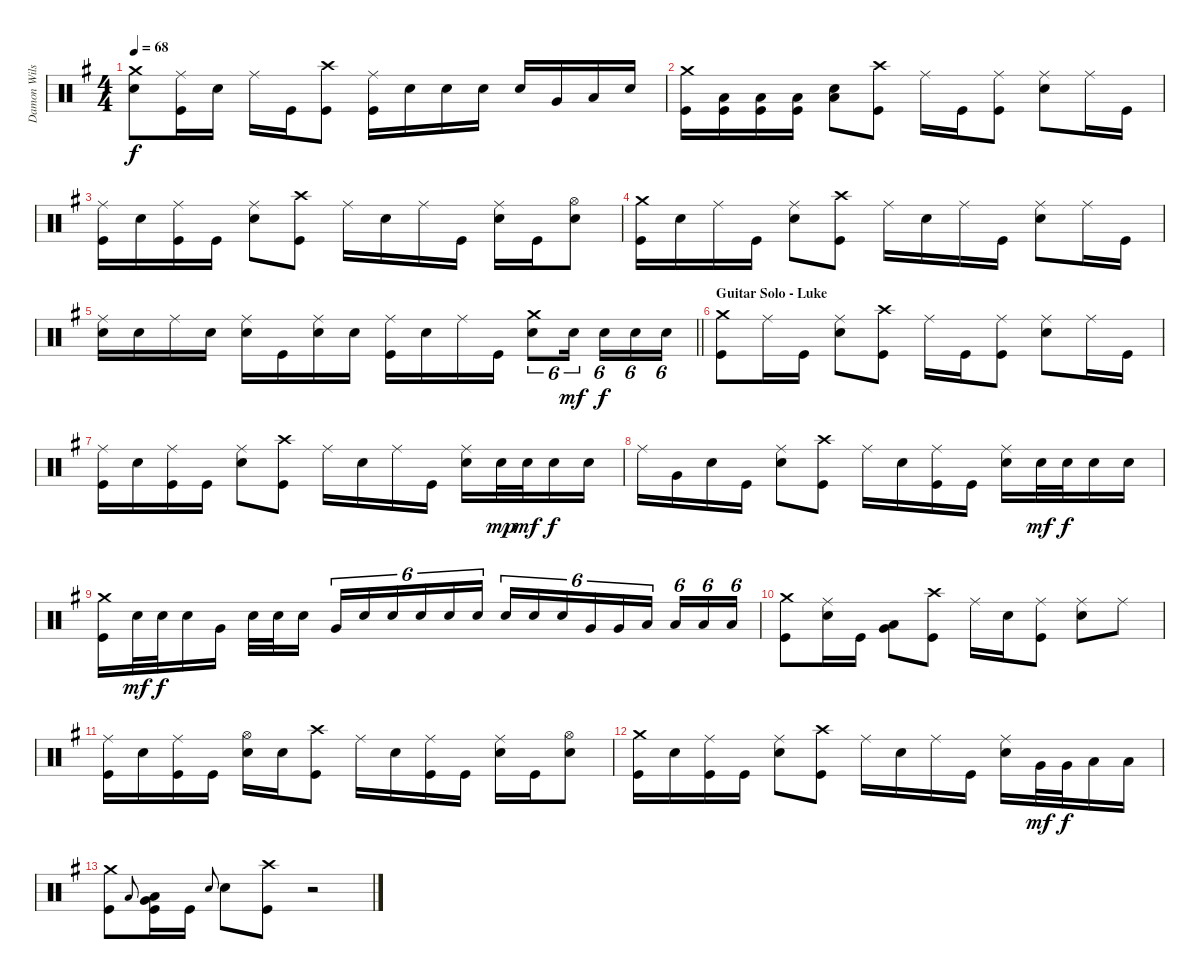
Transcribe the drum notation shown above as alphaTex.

\track ("Damon Wilson" "Damon Wils") {instrument percussion}
\staff {score}
\articulation defaults
\ts (4 4)
\tempo 68
\clef neutral
\ks g
("Crash medium (hit)" "Electric Snare (hit)").8{dy f} ("Ride (middle)" "Kick (hit)").16 "Electric Snare (hit)".16 "Ride (middle)".16 "Kick (hit)".16 ("Crash high (hit)" "Kick (hit)").8 ("Ride (middle)" "Kick (hit)").16 "Electric Snare (hit)".16 "Electric Snare (hit)".16 "Electric Snare (hit)".16 "Electric Snare (hit)".16 "Very Low Tom (hit)".16 "Low Floor Tom (hit)".16 "Electric Snare (hit)".16 |
("Crash medium (hit)" "Kick (hit)").16 ("Low Floor Tom (hit)" "Kick (hit)").16 ("Low Floor Tom (hit)" "Kick (hit)").16 ("Low Floor Tom (hit)" "Kick (hit)").16 ("Low Floor Tom (hit)" "Electric Snare (hit)").8 ("Crash high (hit)" "Kick (hit)").8 "Ride (middle)".16 "Kick (hit)".16 ("Ride (middle)" "Kick (hit)").8 ("Ride (middle)" "Electric Snare (hit)").8 "Ride (middle)".16 "Kick (hit)".16 |
("Ride (middle)" "Kick (hit)").16 "Electric Snare (hit)".16 ("Ride (middle)" "Kick (hit)").16 "Kick (hit)".16 ("Ride (middle)" "Electric Snare (hit)").8 ("Crash high (hit)" "Kick (hit)").8 "Ride (middle)".16 "Electric Snare (hit)".16 "Ride (middle)".16 "Kick (hit)".16 ("Ride (middle)" "Electric Snare (hit)").16 "Kick (hit)".16 ("Hi-Hat (open)" "Electric Snare (hit)").8 |
("Crash medium (hit)" "Kick (hit)").16 "Electric Snare (hit)".16 "Ride (middle)".16 "Kick (hit)".16 ("Ride (middle)" "Electric Snare (hit)").8 ("Crash high (hit)" "Kick (hit)").8 "Ride (middle)".16 "Electric Snare (hit)".16 "Ride (middle)".16 "Kick (hit)".16 ("Ride (middle)" "Electric Snare (hit)").8 "Ride (middle)".16 "Kick (hit)".16 |
\barLineRight lightlight
("Ride (middle)" "Electric Snare (hit)").16 "Electric Snare (hit)".16 "Ride (middle)".16 "Electric Snare (hit)".16 ("Ride (middle)" "Electric Snare (hit)").16 "Kick (hit)".16 ("Ride (middle)" "Electric Snare (hit)").16 "Electric Snare (hit)".16 ("Ride (middle)" "Kick (hit)").16 "Electric Snare (hit)".16 "Ride (middle)".16 "Kick (hit)".16 ("Crash medium (hit)" "Electric Snare (hit)").8{tu (6 4)} "Electric Snare (hit)".16{tu (6 4) dy mf beam splitsecondary} "Electric Snare (hit)".16{tu (6 4) dy f} "Electric Snare (hit)".16{tu (6 4)} "Electric Snare (hit)".16{tu (6 4)} |
\section ("" "Guitar Solo - Luke")
("Crash medium (hit)" "Kick (hit)").8 "Ride (middle)".16 "Kick (hit)".16 ("Ride (middle)" "Electric Snare (hit)").8 ("Crash high (hit)" "Kick (hit)").8 "Ride (middle)".16 "Kick (hit)".16 ("Ride (middle)" "Kick (hit)").8 ("Ride (middle)" "Electric Snare (hit)").8 "Ride (middle)".16 "Kick (hit)".16 |
("Ride (middle)" "Kick (hit)").16 "Electric Snare (hit)".16 ("Ride (middle)" "Kick (hit)").16 "Kick (hit)".16 ("Ride (middle)" "Electric Snare (hit)").8 ("Crash high (hit)" "Kick (hit)").8 "Ride (middle)".16 "Electric Snare (hit)".16 "Ride (middle)".16 "Kick (hit)".16 ("Ride (middle)" "Electric Snare (hit)").16 "Electric Snare (hit)".32{dy mp} "Electric Snare (hit)".32{dy mf} "Electric Snare (hit)".16{dy f} "Electric Snare (hit)".16 |
"Ride (middle)".16 "Very Low Tom (hit)".16 "Electric Snare (hit)".16 "Kick (hit)".16 ("Ride (middle)" "Electric Snare (hit)").8 ("Crash high (hit)" "Kick (hit)").8 "Ride (middle)".16 "Electric Snare (hit)".16 ("Ride (middle)" "Kick (hit)").16 "Kick (hit)".16 ("Ride (middle)" "Electric Snare (hit)").16 "Electric Snare (hit)".32{dy mf} "Electric Snare (hit)".32{dy f} "Electric Snare (hit)".16 "Electric Snare (hit)".16 |
("Crash medium (hit)" "Kick (hit)").16 "Electric Snare (hit)".32{dy mf} "Electric Snare (hit)".32{dy f} "Electric Snare (hit)".16 "Very Low Tom (hit)".16 "Electric Snare (hit)".32 "Electric Snare (hit)".32 "Electric Snare (hit)".16{beam splitsecondary} "Very Low Tom (hit)".16{tu (6 4)} "Electric Snare (hit)".16{tu (6 4)} "Electric Snare (hit)".16{tu (6 4)} "Electric Snare (hit)".16{tu (6 4)} "Electric Snare (hit)".16{tu (6 4)} "Electric Snare (hit)".16{tu (6 4) beam splitsecondary} "Electric Snare (hit)".16{tu (6 4)} "Electric Snare (hit)".16{tu (6 4)} "Electric Snare (hit)".16{tu (6 4)} "Very Low Tom (hit)".16{tu (6 4)} "Very Low Tom (hit)".16{tu (6 4)} "Low Floor Tom (hit)".16{tu (6 4) beam splitsecondary} "Low Floor Tom (hit)".16{tu (6 4)} "Low Floor Tom (hit)".16{tu (6 4)} "Low Floor Tom (hit)".16{tu (6 4)} |
("Crash medium (hit)" "Kick (hit)").8 ("Ride (middle)" "Electric Snare (hit)").16 "Kick (hit)".16 ("Very Low Tom (hit)" "Low Floor Tom (hit)").8 ("Crash high (hit)" "Kick (hit)").8 "Ride (middle)".16 "Electric Snare (hit)".16 ("Ride (middle)" "Kick (hit)").8 ("Ride (middle)" "Electric Snare (hit)").8 "Ride (middle)".8 |
("Ride (middle)" "Kick (hit)").16 "Electric Snare (hit)".16 ("Ride (middle)" "Kick (hit)").16 "Kick (hit)".16 ("Hi-Hat (open)" "Electric Snare (hit)").16 "Electric Snare (hit)".16 ("Crash high (hit)" "Kick (hit)").8 "Ride (middle)".16 "Electric Snare (hit)".16 ("Ride (middle)" "Kick (hit)").16 "Kick (hit)".16 ("Ride (middle)" "Electric Snare (hit)").16 "Kick (hit)".16 ("Hi-Hat (open)" "Electric Snare (hit)").8 |
("Crash medium (hit)" "Kick (hit)").16 "Electric Snare (hit)".16 ("Ride (middle)" "Kick (hit)").16 "Kick (hit)".16 ("Ride (middle)" "Electric Snare (hit)").8 ("Crash high (hit)" "Kick (hit)").8 "Ride (middle)".16 "Electric Snare (hit)".16 "Ride (middle)".16 "Kick (hit)".16 ("Ride (middle)" "Electric Snare (hit)").16 "Very Low Tom (hit)".32{dy mf} "Very Low Tom (hit)".32{dy f} "Low Floor Tom (hit)".16 "Low Floor Tom (hit)".16 |
("Crash medium (hit)" "Kick (hit)").8 "Low Floor Tom (hit)".8{gr onbeat} ("Very Low Tom (hit)" "Low Floor Tom (hit)" "Kick (hit)").16 "Kick (hit)".16 "Electric Snare (hit)".8{gr onbeat} "Electric Snare (hit)".8 ("Crash high (hit)" "Kick (hit)").8 r.2
